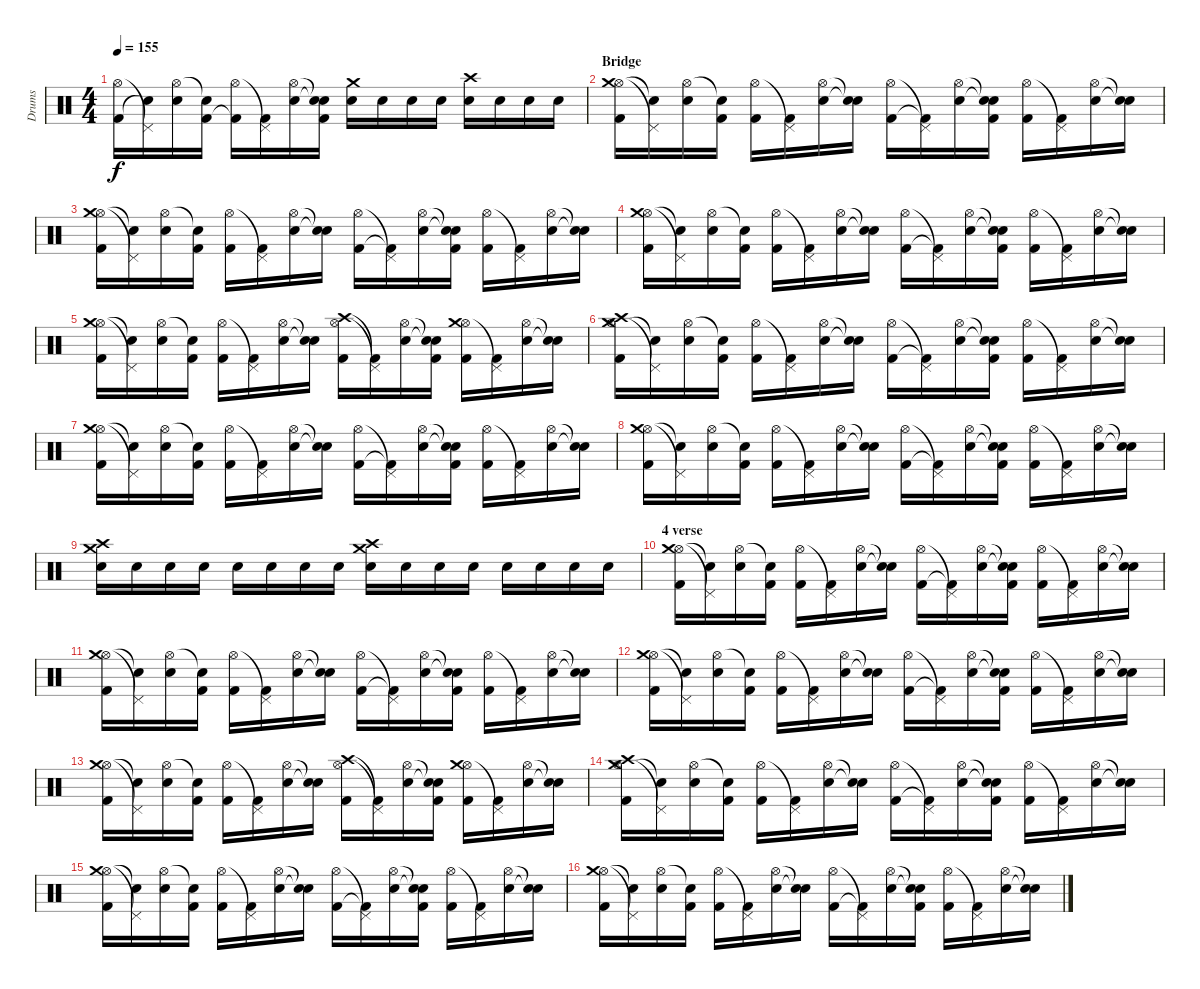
\track ("Drums" "Drums") {instrument percussion}
\staff {score}
\articulation defaults
\ts (4 4)
\tempo 155
\clef neutral
\ks c
("Hi-Hat (open)" "Kick (hit) 2").16{dy f} ("Pedal Hi-Hat (hit)"{t} "Snare (hit)"{t}).16 ("Hi-Hat (open)" "Electric Snare (hit)").16 ("Snare (hit)"{t} "Kick (hit) 2").16 ("Hi-Hat (open)" "Kick (hit) 2"{t}).16 ("Pedal Hi-Hat (hit)"{t} "Kick (hit) 2").16 ("Hi-Hat (open)" "Electric Snare (hit)").16 ("Snare (hit)"{t} "Electric Snare (hit)"{t} "Kick (hit) 2").16 ("Crash medium (hit)" "Electric Snare (hit)").16 "Electric Snare (hit)".16 "Electric Snare (hit)".16 "Electric Snare (hit)".16 ("Crash high (hit)" "Electric Snare (hit)").16 "Electric Snare (hit)".16 "Electric Snare (hit)".16 "Electric Snare (hit)".16 |
\section ("" "Bridge")
("Hi-Hat (open)" "Crash medium (hit)" "Kick (hit) 2").16 ("Pedal Hi-Hat (hit)"{t} "Snare (hit)"{t}).16 ("Hi-Hat (open)" "Electric Snare (hit)").16 ("Snare (hit)"{t} "Kick (hit) 2").16 ("Hi-Hat (open)" "Kick (hit) 2").16 ("Pedal Hi-Hat (hit)"{t} "Kick (hit) 2").16 ("Hi-Hat (open)" "Electric Snare (hit)").16 ("Snare (hit)"{t} "Electric Snare (hit)"{t}).16 ("Hi-Hat (open)" "Kick (hit) 2").16 ("Pedal Hi-Hat (hit)"{t} "Kick (hit) 2"{t}).16 ("Hi-Hat (open)" "Electric Snare (hit)").16 ("Snare (hit)"{t} "Electric Snare (hit)"{t} "Kick (hit) 2").16 ("Hi-Hat (open)" "Kick (hit) 2").16 ("Pedal Hi-Hat (hit)"{t} "Kick (hit) 2").16 ("Hi-Hat (open)" "Electric Snare (hit)").16 ("Snare (hit)"{t} "Electric Snare (hit)"{t}).16 |
("Hi-Hat (open)" "Crash medium (hit)" "Kick (hit) 2").16 ("Pedal Hi-Hat (hit)"{t} "Snare (hit)"{t}).16 ("Hi-Hat (open)" "Electric Snare (hit)").16 ("Snare (hit)"{t} "Kick (hit) 2").16 ("Hi-Hat (open)" "Kick (hit) 2").16 ("Pedal Hi-Hat (hit)"{t} "Kick (hit) 2").16 ("Hi-Hat (open)" "Electric Snare (hit)").16 ("Snare (hit)"{t} "Electric Snare (hit)"{t}).16 ("Hi-Hat (open)" "Kick (hit) 2").16 ("Pedal Hi-Hat (hit)"{t} "Kick (hit) 2"{t}).16 ("Hi-Hat (open)" "Electric Snare (hit)").16 ("Snare (hit)"{t} "Electric Snare (hit)"{t} "Kick (hit) 2").16 ("Hi-Hat (open)" "Kick (hit) 2").16 ("Pedal Hi-Hat (hit)"{t} "Kick (hit) 2").16 ("Hi-Hat (open)" "Electric Snare (hit)").16 ("Snare (hit)"{t} "Electric Snare (hit)"{t}).16 |
("Hi-Hat (open)" "Crash medium (hit)" "Kick (hit) 2").16 ("Pedal Hi-Hat (hit)"{t} "Snare (hit)"{t}).16 ("Hi-Hat (open)" "Electric Snare (hit)").16 ("Snare (hit)"{t} "Kick (hit) 2").16 ("Hi-Hat (open)" "Kick (hit) 2").16 ("Pedal Hi-Hat (hit)"{t} "Kick (hit) 2").16 ("Hi-Hat (open)" "Electric Snare (hit)").16 ("Snare (hit)"{t} "Electric Snare (hit)"{t}).16 ("Hi-Hat (open)" "Kick (hit) 2").16 ("Pedal Hi-Hat (hit)"{t} "Kick (hit) 2"{t}).16 ("Hi-Hat (open)" "Electric Snare (hit)").16 ("Snare (hit)"{t} "Electric Snare (hit)"{t} "Kick (hit) 2").16 ("Hi-Hat (open)" "Kick (hit) 2").16 ("Pedal Hi-Hat (hit)"{t} "Kick (hit) 2").16 ("Hi-Hat (open)" "Electric Snare (hit)").16 ("Snare (hit)"{t} "Electric Snare (hit)"{t}).16 |
("Hi-Hat (open)" "Crash medium (hit)" "Kick (hit) 2").16 ("Pedal Hi-Hat (hit)"{t} "Snare (hit)"{t}).16 ("Hi-Hat (open)" "Electric Snare (hit)").16 ("Snare (hit)"{t} "Kick (hit) 2").16 ("Hi-Hat (open)" "Kick (hit) 2").16 ("Pedal Hi-Hat (hit)"{t} "Kick (hit) 2").16 ("Hi-Hat (open)" "Electric Snare (hit)").16 ("Snare (hit)"{t} "Electric Snare (hit)"{t}).16 ("Hi-Hat (open)" "Crash high (hit)" "Kick (hit) 2").16 ("Pedal Hi-Hat (hit)"{t} "Kick (hit) 2"{t}).16 ("Hi-Hat (open)" "Electric Snare (hit)").16 ("Snare (hit)"{t} "Electric Snare (hit)"{t} "Kick (hit) 2").16 ("Hi-Hat (open)" "Crash medium (hit)" "Kick (hit) 2").16 ("Pedal Hi-Hat (hit)"{t} "Kick (hit) 2").16 ("Hi-Hat (open)" "Electric Snare (hit)").16 ("Snare (hit)"{t} "Electric Snare (hit)"{t}).16 |
("Hi-Hat (open)" "Crash medium (hit)" "Crash high (hit)" "Kick (hit) 2").16 ("Pedal Hi-Hat (hit)"{t} "Snare (hit)"{t}).16 ("Hi-Hat (open)" "Electric Snare (hit)").16 ("Snare (hit)"{t} "Kick (hit) 2").16 ("Hi-Hat (open)" "Kick (hit) 2").16 ("Pedal Hi-Hat (hit)"{t} "Kick (hit) 2").16 ("Hi-Hat (open)" "Electric Snare (hit)").16 ("Snare (hit)"{t} "Electric Snare (hit)"{t}).16 ("Hi-Hat (open)" "Kick (hit) 2").16 ("Pedal Hi-Hat (hit)"{t} "Kick (hit) 2"{t}).16 ("Hi-Hat (open)" "Electric Snare (hit)").16 ("Snare (hit)"{t} "Electric Snare (hit)"{t} "Kick (hit) 2").16 ("Hi-Hat (open)" "Kick (hit) 2").16 ("Pedal Hi-Hat (hit)"{t} "Kick (hit) 2").16 ("Hi-Hat (open)" "Electric Snare (hit)").16 ("Snare (hit)"{t} "Electric Snare (hit)"{t}).16 |
("Hi-Hat (open)" "Crash medium (hit)" "Kick (hit) 2").16 ("Pedal Hi-Hat (hit)"{t} "Snare (hit)"{t}).16 ("Hi-Hat (open)" "Electric Snare (hit)").16 ("Snare (hit)"{t} "Kick (hit) 2").16 ("Hi-Hat (open)" "Kick (hit) 2").16 ("Pedal Hi-Hat (hit)"{t} "Kick (hit) 2").16 ("Hi-Hat (open)" "Electric Snare (hit)").16 ("Snare (hit)"{t} "Electric Snare (hit)"{t}).16 ("Hi-Hat (open)" "Kick (hit) 2").16 ("Pedal Hi-Hat (hit)"{t} "Kick (hit) 2"{t}).16 ("Hi-Hat (open)" "Electric Snare (hit)").16 ("Snare (hit)"{t} "Electric Snare (hit)"{t} "Kick (hit) 2").16 ("Hi-Hat (open)" "Kick (hit) 2").16 ("Pedal Hi-Hat (hit)"{t} "Kick (hit) 2").16 ("Hi-Hat (open)" "Electric Snare (hit)").16 ("Snare (hit)"{t} "Electric Snare (hit)"{t}).16 |
("Hi-Hat (open)" "Crash medium (hit)" "Kick (hit) 2").16 ("Pedal Hi-Hat (hit)"{t} "Snare (hit)"{t}).16 ("Hi-Hat (open)" "Electric Snare (hit)").16 ("Snare (hit)"{t} "Kick (hit) 2").16 ("Hi-Hat (open)" "Kick (hit) 2").16 ("Pedal Hi-Hat (hit)"{t} "Kick (hit) 2").16 ("Hi-Hat (open)" "Electric Snare (hit)").16 ("Snare (hit)"{t} "Electric Snare (hit)"{t}).16 ("Hi-Hat (open)" "Kick (hit) 2").16 ("Pedal Hi-Hat (hit)"{t} "Kick (hit) 2"{t}).16 ("Hi-Hat (open)" "Electric Snare (hit)").16 ("Snare (hit)"{t} "Electric Snare (hit)"{t} "Kick (hit) 2").16 ("Hi-Hat (open)" "Kick (hit) 2").16 ("Pedal Hi-Hat (hit)"{t} "Kick (hit) 2").16 ("Hi-Hat (open)" "Electric Snare (hit)").16 ("Snare (hit)"{t} "Electric Snare (hit)"{t}).16 |
("Crash high (hit)" "Crash medium (hit)" "Snare (hit) 2").16 "Snare (hit) 2".16 "Snare (hit) 2".16 "Snare (hit) 2".16 "Snare (hit) 2".16 "Snare (hit) 2".16 "Snare (hit) 2".16 "Snare (hit) 2".16 ("Crash high (hit)" "Crash medium (hit)" "Electric Snare (hit)").16 "Electric Snare (hit)".16 "Electric Snare (hit)".16 "Electric Snare (hit)".16 "Electric Snare (hit)".16 "Electric Snare (hit)".16 "Electric Snare (hit)".16 "Electric Snare (hit)".16 |
\section ("" "4 verse")
("Hi-Hat (open)" "Crash medium (hit)" "Kick (hit) 2").16 ("Pedal Hi-Hat (hit)"{t} "Snare (hit)"{t}).16 ("Hi-Hat (open)" "Electric Snare (hit)").16 ("Snare (hit)"{t} "Kick (hit) 2").16 ("Hi-Hat (open)" "Kick (hit) 2").16 ("Pedal Hi-Hat (hit)"{t} "Kick (hit) 2").16 ("Hi-Hat (open)" "Electric Snare (hit)").16 ("Snare (hit)"{t} "Electric Snare (hit)"{t}).16 ("Hi-Hat (open)" "Kick (hit) 2").16 ("Pedal Hi-Hat (hit)"{t} "Kick (hit) 2"{t}).16 ("Hi-Hat (open)" "Electric Snare (hit)").16 ("Snare (hit)"{t} "Electric Snare (hit)"{t} "Kick (hit) 2").16 ("Hi-Hat (open)" "Kick (hit) 2").16 ("Pedal Hi-Hat (hit)"{t} "Kick (hit) 2").16 ("Hi-Hat (open)" "Electric Snare (hit)").16 ("Snare (hit)"{t} "Electric Snare (hit)"{t}).16 |
("Hi-Hat (open)" "Crash medium (hit)" "Kick (hit) 2").16 ("Pedal Hi-Hat (hit)"{t} "Snare (hit)"{t}).16 ("Hi-Hat (open)" "Electric Snare (hit)").16 ("Snare (hit)"{t} "Kick (hit) 2").16 ("Hi-Hat (open)" "Kick (hit) 2").16 ("Pedal Hi-Hat (hit)"{t} "Kick (hit) 2").16 ("Hi-Hat (open)" "Electric Snare (hit)").16 ("Snare (hit)"{t} "Electric Snare (hit)"{t}).16 ("Hi-Hat (open)" "Kick (hit) 2").16 ("Pedal Hi-Hat (hit)"{t} "Kick (hit) 2"{t}).16 ("Hi-Hat (open)" "Electric Snare (hit)").16 ("Snare (hit)"{t} "Electric Snare (hit)"{t} "Kick (hit) 2").16 ("Hi-Hat (open)" "Kick (hit) 2").16 ("Pedal Hi-Hat (hit)"{t} "Kick (hit) 2").16 ("Hi-Hat (open)" "Electric Snare (hit)").16 ("Snare (hit)"{t} "Electric Snare (hit)"{t}).16 |
("Hi-Hat (open)" "Crash medium (hit)" "Kick (hit) 2").16 ("Pedal Hi-Hat (hit)"{t} "Snare (hit)"{t}).16 ("Hi-Hat (open)" "Electric Snare (hit)").16 ("Snare (hit)"{t} "Kick (hit) 2").16 ("Hi-Hat (open)" "Kick (hit) 2").16 ("Pedal Hi-Hat (hit)"{t} "Kick (hit) 2").16 ("Hi-Hat (open)" "Electric Snare (hit)").16 ("Snare (hit)"{t} "Electric Snare (hit)"{t}).16 ("Hi-Hat (open)" "Kick (hit) 2").16 ("Pedal Hi-Hat (hit)"{t} "Kick (hit) 2"{t}).16 ("Hi-Hat (open)" "Electric Snare (hit)").16 ("Snare (hit)"{t} "Electric Snare (hit)"{t} "Kick (hit) 2").16 ("Hi-Hat (open)" "Kick (hit) 2").16 ("Pedal Hi-Hat (hit)"{t} "Kick (hit) 2").16 ("Hi-Hat (open)" "Electric Snare (hit)").16 ("Snare (hit)"{t} "Electric Snare (hit)"{t}).16 |
("Hi-Hat (open)" "Crash medium (hit)" "Kick (hit) 2").16 ("Pedal Hi-Hat (hit)"{t} "Snare (hit)"{t}).16 ("Hi-Hat (open)" "Electric Snare (hit)").16 ("Snare (hit)"{t} "Kick (hit) 2").16 ("Hi-Hat (open)" "Kick (hit) 2").16 ("Pedal Hi-Hat (hit)"{t} "Kick (hit) 2").16 ("Hi-Hat (open)" "Electric Snare (hit)").16 ("Snare (hit)"{t} "Electric Snare (hit)"{t}).16 ("Hi-Hat (open)" "Crash high (hit)" "Kick (hit) 2").16 ("Pedal Hi-Hat (hit)"{t} "Kick (hit) 2"{t}).16 ("Hi-Hat (open)" "Electric Snare (hit)").16 ("Snare (hit)"{t} "Electric Snare (hit)"{t} "Kick (hit) 2").16 ("Hi-Hat (open)" "Crash medium (hit)" "Kick (hit) 2").16 ("Pedal Hi-Hat (hit)"{t} "Kick (hit) 2").16 ("Hi-Hat (open)" "Electric Snare (hit)").16 ("Snare (hit)"{t} "Electric Snare (hit)"{t}).16 |
("Hi-Hat (open)" "Crash medium (hit)" "Crash high (hit)" "Kick (hit) 2").16 ("Pedal Hi-Hat (hit)"{t} "Snare (hit)"{t}).16 ("Hi-Hat (open)" "Electric Snare (hit)").16 ("Snare (hit)"{t} "Kick (hit) 2").16 ("Hi-Hat (open)" "Kick (hit) 2").16 ("Pedal Hi-Hat (hit)"{t} "Kick (hit) 2").16 ("Hi-Hat (open)" "Electric Snare (hit)").16 ("Snare (hit)"{t} "Electric Snare (hit)"{t}).16 ("Hi-Hat (open)" "Kick (hit) 2").16 ("Pedal Hi-Hat (hit)"{t} "Kick (hit) 2"{t}).16 ("Hi-Hat (open)" "Electric Snare (hit)").16 ("Snare (hit)"{t} "Electric Snare (hit)"{t} "Kick (hit) 2").16 ("Hi-Hat (open)" "Kick (hit) 2").16 ("Pedal Hi-Hat (hit)"{t} "Kick (hit) 2").16 ("Hi-Hat (open)" "Electric Snare (hit)").16 ("Snare (hit)"{t} "Electric Snare (hit)"{t}).16 |
("Hi-Hat (open)" "Crash medium (hit)" "Kick (hit) 2").16 ("Pedal Hi-Hat (hit)"{t} "Snare (hit)"{t}).16 ("Hi-Hat (open)" "Electric Snare (hit)").16 ("Snare (hit)"{t} "Kick (hit) 2").16 ("Hi-Hat (open)" "Kick (hit) 2").16 ("Pedal Hi-Hat (hit)"{t} "Kick (hit) 2").16 ("Hi-Hat (open)" "Electric Snare (hit)").16 ("Snare (hit)"{t} "Electric Snare (hit)"{t}).16 ("Hi-Hat (open)" "Kick (hit) 2").16 ("Pedal Hi-Hat (hit)"{t} "Kick (hit) 2"{t}).16 ("Hi-Hat (open)" "Electric Snare (hit)").16 ("Snare (hit)"{t} "Electric Snare (hit)"{t} "Kick (hit) 2").16 ("Hi-Hat (open)" "Kick (hit) 2").16 ("Pedal Hi-Hat (hit)"{t} "Kick (hit) 2").16 ("Hi-Hat (open)" "Electric Snare (hit)").16 ("Snare (hit)"{t} "Electric Snare (hit)"{t}).16 |
("Hi-Hat (open)" "Crash medium (hit)" "Kick (hit) 2").16 ("Pedal Hi-Hat (hit)"{t} "Snare (hit)"{t}).16 ("Hi-Hat (open)" "Electric Snare (hit)").16 ("Snare (hit)"{t} "Kick (hit) 2").16 ("Hi-Hat (open)" "Kick (hit) 2").16 ("Pedal Hi-Hat (hit)"{t} "Kick (hit) 2").16 ("Hi-Hat (open)" "Electric Snare (hit)").16 ("Snare (hit)"{t} "Electric Snare (hit)"{t}).16 ("Hi-Hat (open)" "Kick (hit) 2").16 ("Pedal Hi-Hat (hit)"{t} "Kick (hit) 2"{t}).16 ("Hi-Hat (open)" "Electric Snare (hit)").16 ("Snare (hit)"{t} "Electric Snare (hit)"{t} "Kick (hit) 2").16 ("Hi-Hat (open)" "Kick (hit) 2").16 ("Pedal Hi-Hat (hit)"{t} "Kick (hit) 2").16 ("Hi-Hat (open)" "Electric Snare (hit)").16 ("Snare (hit)"{t} "Electric Snare (hit)"{t}).16
